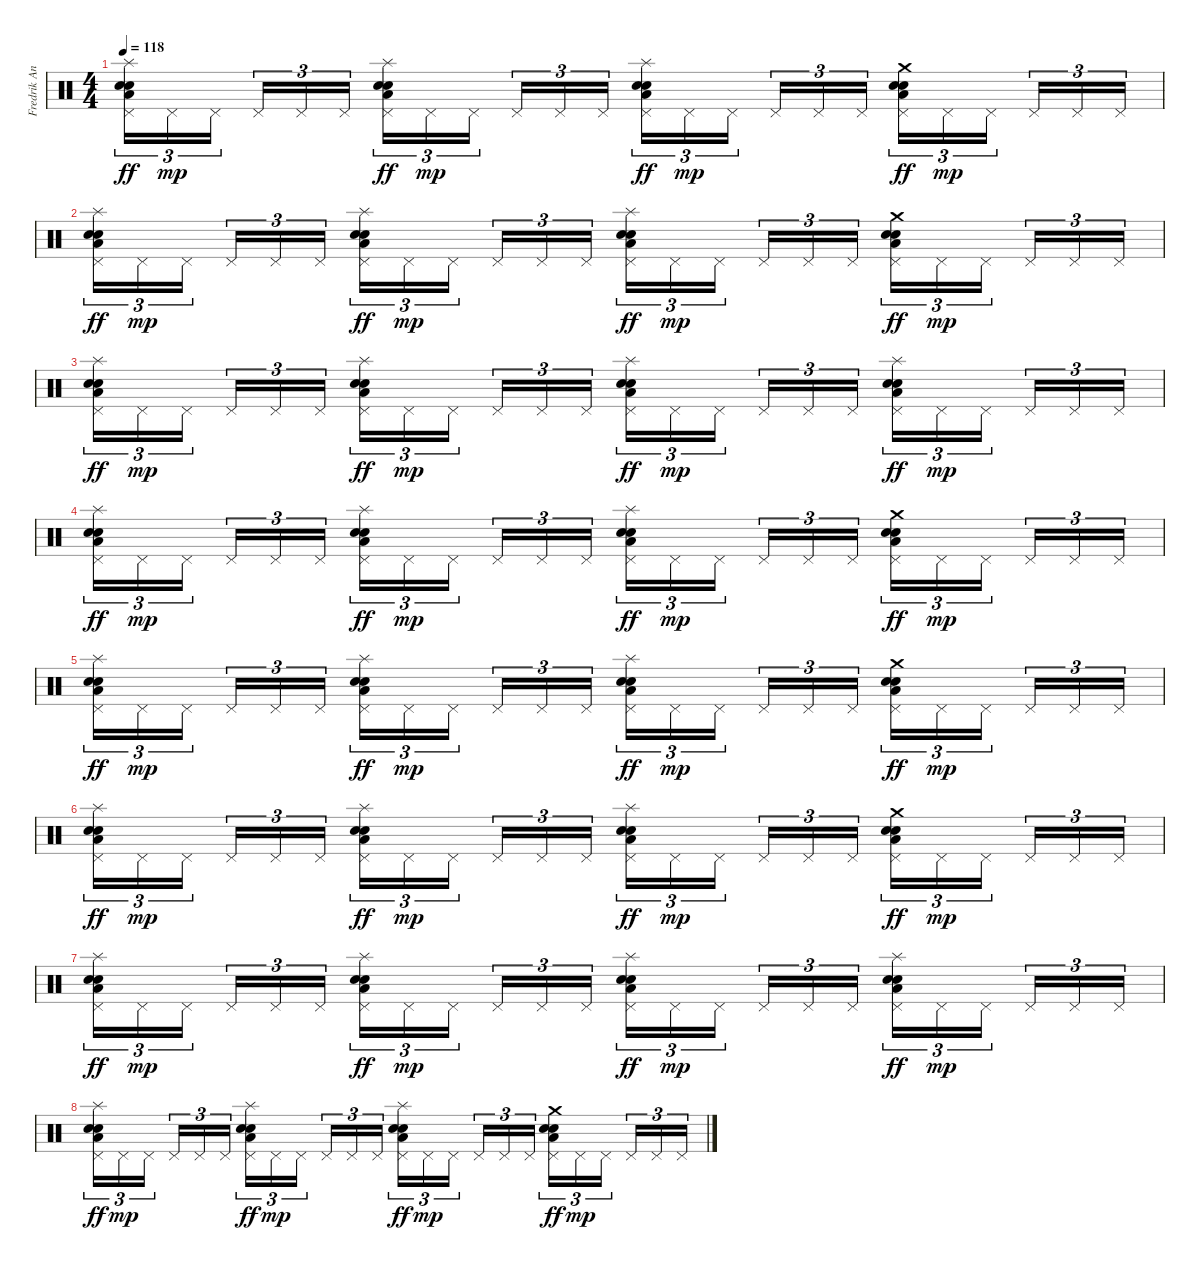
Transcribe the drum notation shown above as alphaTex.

\track ("Fredrik Andersson " "Fredrik An") {instrument percussion}
\staff {score}
\articulation defaults
\ts (4 4)
\tempo 118
\clef neutral
\ks c
("Splash (hit)" "Pedal Hi-Hat (hit)" "Electric Snare (hit)" "Snare (hit) 2" "Low Floor Tom (hit)").16{tu (3 2) dy ff} "Pedal Hi-Hat (hit)".16{tu (3 2) dy mp} "Pedal Hi-Hat (hit)".16{tu (3 2) beam splitsecondary} "Pedal Hi-Hat (hit)".16{tu (3 2)} "Pedal Hi-Hat (hit)".16{tu (3 2)} "Pedal Hi-Hat (hit)".16{tu (3 2)} ("Splash (hit)" "Pedal Hi-Hat (hit)" "Electric Snare (hit)" "Snare (hit) 2" "Low Floor Tom (hit)").16{tu (3 2) dy ff} "Pedal Hi-Hat (hit)".16{tu (3 2) dy mp} "Pedal Hi-Hat (hit)".16{tu (3 2) beam splitsecondary} "Pedal Hi-Hat (hit)".16{tu (3 2)} "Pedal Hi-Hat (hit)".16{tu (3 2)} "Pedal Hi-Hat (hit)".16{tu (3 2)} ("Splash (hit)" "Pedal Hi-Hat (hit)" "Electric Snare (hit)" "Snare (hit) 2" "Low Floor Tom (hit)").16{tu (3 2) dy ff} "Pedal Hi-Hat (hit)".16{tu (3 2) dy mp} "Pedal Hi-Hat (hit)".16{tu (3 2) beam splitsecondary} "Pedal Hi-Hat (hit)".16{tu (3 2)} "Pedal Hi-Hat (hit)".16{tu (3 2)} "Pedal Hi-Hat (hit)".16{tu (3 2)} ("Crash medium (hit)" "Pedal Hi-Hat (hit)" "Electric Snare (hit)" "Snare (hit) 2" "Low Floor Tom (hit)").16{tu (3 2) dy ff} "Pedal Hi-Hat (hit)".16{tu (3 2) dy mp} "Pedal Hi-Hat (hit)".16{tu (3 2) beam splitsecondary} "Pedal Hi-Hat (hit)".16{tu (3 2)} "Pedal Hi-Hat (hit)".16{tu (3 2)} "Pedal Hi-Hat (hit)".16{tu (3 2)} |
("Splash (hit)" "Pedal Hi-Hat (hit)" "Electric Snare (hit)" "Snare (hit) 2" "Low Floor Tom (hit)").16{tu (3 2) dy ff} "Pedal Hi-Hat (hit)".16{tu (3 2) dy mp} "Pedal Hi-Hat (hit)".16{tu (3 2) beam splitsecondary} "Pedal Hi-Hat (hit)".16{tu (3 2)} "Pedal Hi-Hat (hit)".16{tu (3 2)} "Pedal Hi-Hat (hit)".16{tu (3 2)} ("Splash (hit)" "Pedal Hi-Hat (hit)" "Electric Snare (hit)" "Snare (hit) 2" "Low Floor Tom (hit)").16{tu (3 2) dy ff} "Pedal Hi-Hat (hit)".16{tu (3 2) dy mp} "Pedal Hi-Hat (hit)".16{tu (3 2) beam splitsecondary} "Pedal Hi-Hat (hit)".16{tu (3 2)} "Pedal Hi-Hat (hit)".16{tu (3 2)} "Pedal Hi-Hat (hit)".16{tu (3 2)} ("Splash (hit)" "Pedal Hi-Hat (hit)" "Electric Snare (hit)" "Snare (hit) 2" "Low Floor Tom (hit)").16{tu (3 2) dy ff} "Pedal Hi-Hat (hit)".16{tu (3 2) dy mp} "Pedal Hi-Hat (hit)".16{tu (3 2) beam splitsecondary} "Pedal Hi-Hat (hit)".16{tu (3 2)} "Pedal Hi-Hat (hit)".16{tu (3 2)} "Pedal Hi-Hat (hit)".16{tu (3 2)} ("Crash medium (hit)" "Pedal Hi-Hat (hit)" "Electric Snare (hit)" "Snare (hit) 2" "Low Floor Tom (hit)").16{tu (3 2) dy ff} "Pedal Hi-Hat (hit)".16{tu (3 2) dy mp} "Pedal Hi-Hat (hit)".16{tu (3 2) beam splitsecondary} "Pedal Hi-Hat (hit)".16{tu (3 2)} "Pedal Hi-Hat (hit)".16{tu (3 2)} "Pedal Hi-Hat (hit)".16{tu (3 2)} |
("Splash (hit)" "Pedal Hi-Hat (hit)" "Electric Snare (hit)" "Snare (hit) 2" "Low Floor Tom (hit)").16{tu (3 2) dy ff} "Pedal Hi-Hat (hit)".16{tu (3 2) dy mp} "Pedal Hi-Hat (hit)".16{tu (3 2) beam splitsecondary} "Pedal Hi-Hat (hit)".16{tu (3 2)} "Pedal Hi-Hat (hit)".16{tu (3 2)} "Pedal Hi-Hat (hit)".16{tu (3 2)} ("Splash (hit)" "Pedal Hi-Hat (hit)" "Electric Snare (hit)" "Snare (hit) 2" "Low Floor Tom (hit)").16{tu (3 2) dy ff} "Pedal Hi-Hat (hit)".16{tu (3 2) dy mp} "Pedal Hi-Hat (hit)".16{tu (3 2) beam splitsecondary} "Pedal Hi-Hat (hit)".16{tu (3 2)} "Pedal Hi-Hat (hit)".16{tu (3 2)} "Pedal Hi-Hat (hit)".16{tu (3 2)} ("Splash (hit)" "Pedal Hi-Hat (hit)" "Electric Snare (hit)" "Snare (hit) 2" "Low Floor Tom (hit)").16{tu (3 2) dy ff} "Pedal Hi-Hat (hit)".16{tu (3 2) dy mp} "Pedal Hi-Hat (hit)".16{tu (3 2) beam splitsecondary} "Pedal Hi-Hat (hit)".16{tu (3 2)} "Pedal Hi-Hat (hit)".16{tu (3 2)} "Pedal Hi-Hat (hit)".16{tu (3 2)} ("Splash (hit)" "Pedal Hi-Hat (hit)" "Electric Snare (hit)" "Snare (hit) 2" "Low Floor Tom (hit)").16{tu (3 2) dy ff} "Pedal Hi-Hat (hit)".16{tu (3 2) dy mp} "Pedal Hi-Hat (hit)".16{tu (3 2) beam splitsecondary} "Pedal Hi-Hat (hit)".16{tu (3 2)} "Pedal Hi-Hat (hit)".16{tu (3 2)} "Pedal Hi-Hat (hit)".16{tu (3 2)} |
("Splash (hit)" "Pedal Hi-Hat (hit)" "Electric Snare (hit)" "Snare (hit) 2" "Low Floor Tom (hit)").16{tu (3 2) dy ff} "Pedal Hi-Hat (hit)".16{tu (3 2) dy mp} "Pedal Hi-Hat (hit)".16{tu (3 2) beam splitsecondary} "Pedal Hi-Hat (hit)".16{tu (3 2)} "Pedal Hi-Hat (hit)".16{tu (3 2)} "Pedal Hi-Hat (hit)".16{tu (3 2)} ("Splash (hit)" "Pedal Hi-Hat (hit)" "Electric Snare (hit)" "Snare (hit) 2" "Low Floor Tom (hit)").16{tu (3 2) dy ff} "Pedal Hi-Hat (hit)".16{tu (3 2) dy mp} "Pedal Hi-Hat (hit)".16{tu (3 2) beam splitsecondary} "Pedal Hi-Hat (hit)".16{tu (3 2)} "Pedal Hi-Hat (hit)".16{tu (3 2)} "Pedal Hi-Hat (hit)".16{tu (3 2)} ("Splash (hit)" "Pedal Hi-Hat (hit)" "Electric Snare (hit)" "Snare (hit) 2" "Low Floor Tom (hit)").16{tu (3 2) dy ff} "Pedal Hi-Hat (hit)".16{tu (3 2) dy mp} "Pedal Hi-Hat (hit)".16{tu (3 2) beam splitsecondary} "Pedal Hi-Hat (hit)".16{tu (3 2)} "Pedal Hi-Hat (hit)".16{tu (3 2)} "Pedal Hi-Hat (hit)".16{tu (3 2)} ("Crash medium (hit)" "Pedal Hi-Hat (hit)" "Electric Snare (hit)" "Snare (hit) 2" "Low Floor Tom (hit)").16{tu (3 2) dy ff} "Pedal Hi-Hat (hit)".16{tu (3 2) dy mp} "Pedal Hi-Hat (hit)".16{tu (3 2) beam splitsecondary} "Pedal Hi-Hat (hit)".16{tu (3 2)} "Pedal Hi-Hat (hit)".16{tu (3 2)} "Pedal Hi-Hat (hit)".16{tu (3 2)} |
("Splash (hit)" "Pedal Hi-Hat (hit)" "Electric Snare (hit)" "Snare (hit) 2" "Low Floor Tom (hit)").16{tu (3 2) dy ff} "Pedal Hi-Hat (hit)".16{tu (3 2) dy mp} "Pedal Hi-Hat (hit)".16{tu (3 2) beam splitsecondary} "Pedal Hi-Hat (hit)".16{tu (3 2)} "Pedal Hi-Hat (hit)".16{tu (3 2)} "Pedal Hi-Hat (hit)".16{tu (3 2)} ("Splash (hit)" "Pedal Hi-Hat (hit)" "Electric Snare (hit)" "Snare (hit) 2" "Low Floor Tom (hit)").16{tu (3 2) dy ff} "Pedal Hi-Hat (hit)".16{tu (3 2) dy mp} "Pedal Hi-Hat (hit)".16{tu (3 2) beam splitsecondary} "Pedal Hi-Hat (hit)".16{tu (3 2)} "Pedal Hi-Hat (hit)".16{tu (3 2)} "Pedal Hi-Hat (hit)".16{tu (3 2)} ("Splash (hit)" "Pedal Hi-Hat (hit)" "Electric Snare (hit)" "Snare (hit) 2" "Low Floor Tom (hit)").16{tu (3 2) dy ff} "Pedal Hi-Hat (hit)".16{tu (3 2) dy mp} "Pedal Hi-Hat (hit)".16{tu (3 2) beam splitsecondary} "Pedal Hi-Hat (hit)".16{tu (3 2)} "Pedal Hi-Hat (hit)".16{tu (3 2)} "Pedal Hi-Hat (hit)".16{tu (3 2)} ("Crash medium (hit)" "Pedal Hi-Hat (hit)" "Electric Snare (hit)" "Snare (hit) 2" "Low Floor Tom (hit)").16{tu (3 2) dy ff} "Pedal Hi-Hat (hit)".16{tu (3 2) dy mp} "Pedal Hi-Hat (hit)".16{tu (3 2) beam splitsecondary} "Pedal Hi-Hat (hit)".16{tu (3 2)} "Pedal Hi-Hat (hit)".16{tu (3 2)} "Pedal Hi-Hat (hit)".16{tu (3 2)} |
("Splash (hit)" "Pedal Hi-Hat (hit)" "Electric Snare (hit)" "Snare (hit) 2" "Low Floor Tom (hit)").16{tu (3 2) dy ff} "Pedal Hi-Hat (hit)".16{tu (3 2) dy mp} "Pedal Hi-Hat (hit)".16{tu (3 2) beam splitsecondary} "Pedal Hi-Hat (hit)".16{tu (3 2)} "Pedal Hi-Hat (hit)".16{tu (3 2)} "Pedal Hi-Hat (hit)".16{tu (3 2)} ("Splash (hit)" "Pedal Hi-Hat (hit)" "Electric Snare (hit)" "Snare (hit) 2" "Low Floor Tom (hit)").16{tu (3 2) dy ff} "Pedal Hi-Hat (hit)".16{tu (3 2) dy mp} "Pedal Hi-Hat (hit)".16{tu (3 2) beam splitsecondary} "Pedal Hi-Hat (hit)".16{tu (3 2)} "Pedal Hi-Hat (hit)".16{tu (3 2)} "Pedal Hi-Hat (hit)".16{tu (3 2)} ("Splash (hit)" "Pedal Hi-Hat (hit)" "Electric Snare (hit)" "Snare (hit) 2" "Low Floor Tom (hit)").16{tu (3 2) dy ff} "Pedal Hi-Hat (hit)".16{tu (3 2) dy mp} "Pedal Hi-Hat (hit)".16{tu (3 2) beam splitsecondary} "Pedal Hi-Hat (hit)".16{tu (3 2)} "Pedal Hi-Hat (hit)".16{tu (3 2)} "Pedal Hi-Hat (hit)".16{tu (3 2)} ("Crash medium (hit)" "Pedal Hi-Hat (hit)" "Electric Snare (hit)" "Snare (hit) 2" "Low Floor Tom (hit)").16{tu (3 2) dy ff} "Pedal Hi-Hat (hit)".16{tu (3 2) dy mp} "Pedal Hi-Hat (hit)".16{tu (3 2) beam splitsecondary} "Pedal Hi-Hat (hit)".16{tu (3 2)} "Pedal Hi-Hat (hit)".16{tu (3 2)} "Pedal Hi-Hat (hit)".16{tu (3 2)} |
("Splash (hit)" "Pedal Hi-Hat (hit)" "Electric Snare (hit)" "Snare (hit) 2" "Low Floor Tom (hit)").16{tu (3 2) dy ff} "Pedal Hi-Hat (hit)".16{tu (3 2) dy mp} "Pedal Hi-Hat (hit)".16{tu (3 2) beam splitsecondary} "Pedal Hi-Hat (hit)".16{tu (3 2)} "Pedal Hi-Hat (hit)".16{tu (3 2)} "Pedal Hi-Hat (hit)".16{tu (3 2)} ("Splash (hit)" "Pedal Hi-Hat (hit)" "Electric Snare (hit)" "Snare (hit) 2" "Low Floor Tom (hit)").16{tu (3 2) dy ff} "Pedal Hi-Hat (hit)".16{tu (3 2) dy mp} "Pedal Hi-Hat (hit)".16{tu (3 2) beam splitsecondary} "Pedal Hi-Hat (hit)".16{tu (3 2)} "Pedal Hi-Hat (hit)".16{tu (3 2)} "Pedal Hi-Hat (hit)".16{tu (3 2)} ("Splash (hit)" "Pedal Hi-Hat (hit)" "Electric Snare (hit)" "Snare (hit) 2" "Low Floor Tom (hit)").16{tu (3 2) dy ff} "Pedal Hi-Hat (hit)".16{tu (3 2) dy mp} "Pedal Hi-Hat (hit)".16{tu (3 2) beam splitsecondary} "Pedal Hi-Hat (hit)".16{tu (3 2)} "Pedal Hi-Hat (hit)".16{tu (3 2)} "Pedal Hi-Hat (hit)".16{tu (3 2)} ("Splash (hit)" "Pedal Hi-Hat (hit)" "Electric Snare (hit)" "Snare (hit) 2" "Low Floor Tom (hit)").16{tu (3 2) dy ff} "Pedal Hi-Hat (hit)".16{tu (3 2) dy mp} "Pedal Hi-Hat (hit)".16{tu (3 2) beam splitsecondary} "Pedal Hi-Hat (hit)".16{tu (3 2)} "Pedal Hi-Hat (hit)".16{tu (3 2)} "Pedal Hi-Hat (hit)".16{tu (3 2)} |
("Splash (hit)" "Pedal Hi-Hat (hit)" "Electric Snare (hit)" "Snare (hit) 2" "Low Floor Tom (hit)").16{tu (3 2) dy ff} "Pedal Hi-Hat (hit)".16{tu (3 2) dy mp} "Pedal Hi-Hat (hit)".16{tu (3 2) beam splitsecondary} "Pedal Hi-Hat (hit)".16{tu (3 2)} "Pedal Hi-Hat (hit)".16{tu (3 2)} "Pedal Hi-Hat (hit)".16{tu (3 2)} ("Splash (hit)" "Pedal Hi-Hat (hit)" "Electric Snare (hit)" "Snare (hit) 2" "Low Floor Tom (hit)").16{tu (3 2) dy ff} "Pedal Hi-Hat (hit)".16{tu (3 2) dy mp} "Pedal Hi-Hat (hit)".16{tu (3 2) beam splitsecondary} "Pedal Hi-Hat (hit)".16{tu (3 2)} "Pedal Hi-Hat (hit)".16{tu (3 2)} "Pedal Hi-Hat (hit)".16{tu (3 2)} ("Splash (hit)" "Pedal Hi-Hat (hit)" "Electric Snare (hit)" "Snare (hit) 2" "Low Floor Tom (hit)").16{tu (3 2) dy ff} "Pedal Hi-Hat (hit)".16{tu (3 2) dy mp} "Pedal Hi-Hat (hit)".16{tu (3 2) beam splitsecondary} "Pedal Hi-Hat (hit)".16{tu (3 2)} "Pedal Hi-Hat (hit)".16{tu (3 2)} "Pedal Hi-Hat (hit)".16{tu (3 2)} ("Crash medium (hit)" "Pedal Hi-Hat (hit)" "Electric Snare (hit)" "Snare (hit) 2" "Low Floor Tom (hit)").16{tu (3 2) dy ff} "Pedal Hi-Hat (hit)".16{tu (3 2) dy mp} "Pedal Hi-Hat (hit)".16{tu (3 2) beam splitsecondary} "Pedal Hi-Hat (hit)".16{tu (3 2)} "Pedal Hi-Hat (hit)".16{tu (3 2)} "Pedal Hi-Hat (hit)".16{tu (3 2)}
